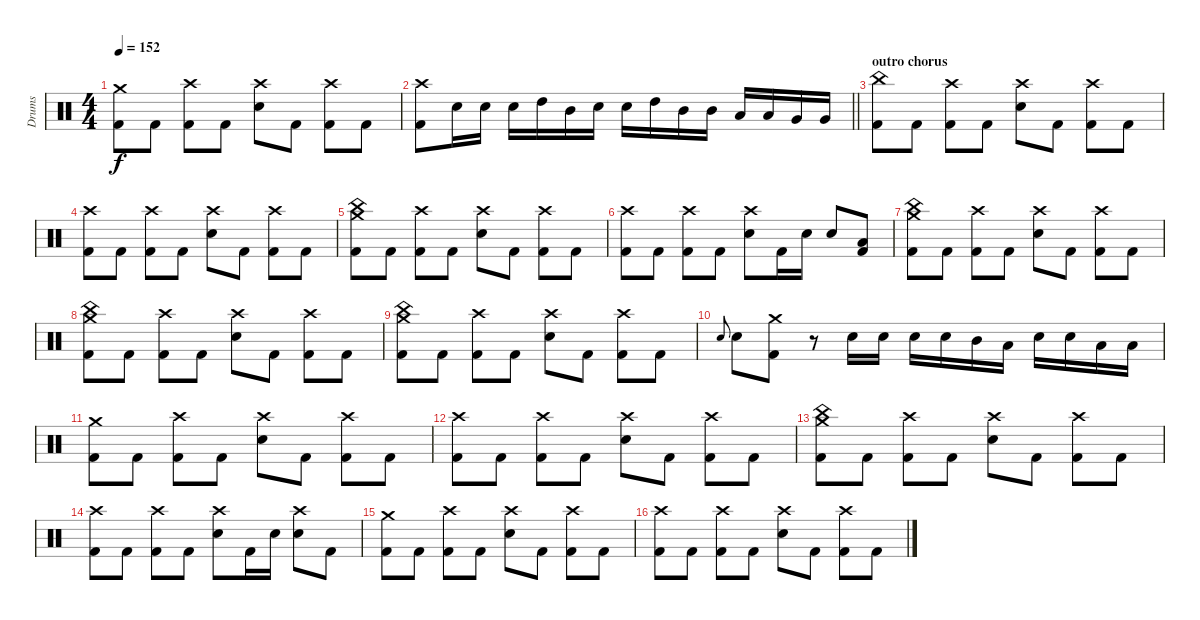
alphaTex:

\track ("Drums" "Drums") {instrument percussion}
\staff {score}
\articulation defaults
\ts (4 4)
\tempo 152
\clef neutral
\ks c
("Crash medium (hit)" "Kick (hit) 2").8{dy f} "Kick (hit) 2".8 ("Crash high (hit)" "Kick (hit) 2").8 "Kick (hit) 2".8 ("Crash high (hit)" "Electric Snare (hit)").8 "Kick (hit) 2".8 ("Crash high (hit)" "Kick (hit) 2").8 "Kick (hit) 2".8 |
\barLineRight lightlight
("Crash high (hit)" "Kick (hit) 2").8 "Electric Snare (hit)".16 "Electric Snare (hit)".16 "Electric Snare (hit)".16 "High Tom (hit)".16 "Mid Tom (hit)".16 "Electric Snare (hit)".16 "Electric Snare (hit)".16 "High Tom (hit)".16 "Mid Tom (hit)".16 "Mid Tom (hit)".16 "Low Tom (hit)".16 "Low Tom (hit)".16 "Very Low Tom (hit)".16 "Very Low Tom (hit)".16 |
\section ("" "outro chorus")
("China (hit)" "Kick (hit) 2").8 "Kick (hit) 2".8 ("Crash high (hit)" "Kick (hit) 2").8 "Kick (hit) 2".8 ("Crash high (hit)" "Electric Snare (hit)").8 "Kick (hit) 2".8 ("Crash high (hit)" "Kick (hit) 2").8 "Kick (hit) 2".8 |
("Crash high (hit)" "Kick (hit) 2").8 "Kick (hit) 2".8 ("Crash high (hit)" "Kick (hit) 2").8 "Kick (hit) 2".8 ("Crash high (hit)" "Electric Snare (hit)").8 "Kick (hit) 2".8 ("Crash high (hit)" "Kick (hit) 2").8 "Kick (hit) 2".8 |
("China (hit)" "Crash medium (hit)" "Kick (hit) 2").8 "Kick (hit) 2".8 ("Crash high (hit)" "Kick (hit) 2").8 "Kick (hit) 2".8 ("Crash high (hit)" "Electric Snare (hit)").8 "Kick (hit) 2".8 ("Crash high (hit)" "Kick (hit) 2").8 "Kick (hit) 2".8 |
("Crash high (hit)" "Kick (hit) 2").8 "Kick (hit) 2".8 ("Crash high (hit)" "Kick (hit) 2").8 "Kick (hit) 2".8 ("Crash high (hit)" "Electric Snare (hit)").8 "Kick (hit) 2".16 "Electric Snare (hit)".16 "Electric Snare (hit)".8 ("Low Tom (hit)" "Kick (hit) 2").8 |
("China (hit)" "Crash medium (hit)" "Kick (hit) 2").8 "Kick (hit) 2".8 ("Crash high (hit)" "Kick (hit) 2").8 "Kick (hit) 2".8 ("Crash high (hit)" "Electric Snare (hit)").8 "Kick (hit) 2".8 ("Crash high (hit)" "Kick (hit) 2").8 "Kick (hit) 2".8 |
("China (hit)" "Crash medium (hit)" "Kick (hit) 2").8 "Kick (hit) 2".8 ("Crash high (hit)" "Kick (hit) 2").8 "Kick (hit) 2".8 ("Crash high (hit)" "Electric Snare (hit)").8 "Kick (hit) 2".8 ("Crash high (hit)" "Kick (hit) 2").8 "Kick (hit) 2".8 |
("China (hit)" "Crash medium (hit)" "Kick (hit) 2").8 "Kick (hit) 2".8 ("Crash high (hit)" "Kick (hit) 2").8 "Kick (hit) 2".8 ("Crash high (hit)" "Electric Snare (hit)").8 "Kick (hit) 2".8 ("Crash high (hit)" "Kick (hit) 2").8 "Kick (hit) 2".8 |
"Electric Snare (hit)".8{gr onbeat} "Electric Snare (hit)".8 ("Crash medium (hit)" "Kick (hit) 2").8 r.8 "Electric Snare (hit)".16 "Electric Snare (hit)".16 "Electric Snare (hit)".16 "Electric Snare (hit)".16 "Mid Tom (hit)".16 "Low Tom (hit)".16 "Electric Snare (hit)".16 "Electric Snare (hit)".16 "Low Tom (hit)".16 "Low Tom (hit)".16 |
("Crash medium (hit)" "Kick (hit) 2").8 "Kick (hit) 2".8 ("Crash high (hit)" "Kick (hit) 2").8 "Kick (hit) 2".8 ("Crash high (hit)" "Electric Snare (hit)").8 "Kick (hit) 2".8 ("Crash high (hit)" "Kick (hit) 2").8 "Kick (hit) 2".8 |
("Crash high (hit)" "Kick (hit) 2").8 "Kick (hit) 2".8 ("Crash high (hit)" "Kick (hit) 2").8 "Kick (hit) 2".8 ("Crash high (hit)" "Electric Snare (hit)").8 "Kick (hit) 2".8 ("Crash high (hit)" "Kick (hit) 2").8 "Kick (hit) 2".8 |
("Crash medium (hit)" "China (hit)" "Kick (hit) 2").8 "Kick (hit) 2".8 ("Crash high (hit)" "Kick (hit) 2").8 "Kick (hit) 2".8 ("Crash high (hit)" "Electric Snare (hit)").8 "Kick (hit) 2".8 ("Crash high (hit)" "Kick (hit) 2").8 "Kick (hit) 2".8 |
("Crash high (hit)" "Kick (hit) 2").8 "Kick (hit) 2".8 ("Crash high (hit)" "Kick (hit) 2").8 "Kick (hit) 2".8 ("Crash high (hit)" "Electric Snare (hit)").8 "Kick (hit) 2".16 "Electric Snare (hit)".16 ("Crash high (hit)" "Electric Snare (hit)").8 "Kick (hit) 2".8 |
("Crash medium (hit)" "Kick (hit) 2").8 "Kick (hit) 2".8 ("Crash high (hit)" "Kick (hit) 2").8 "Kick (hit) 2".8 ("Crash high (hit)" "Electric Snare (hit)").8 "Kick (hit) 2".8 ("Crash high (hit)" "Kick (hit) 2").8 "Kick (hit) 2".8 |
("Crash high (hit)" "Kick (hit) 2").8 "Kick (hit) 2".8 ("Crash high (hit)" "Kick (hit) 2").8 "Kick (hit) 2".8 ("Crash high (hit)" "Electric Snare (hit)").8 "Kick (hit) 2".8 ("Crash high (hit)" "Kick (hit) 2").8 "Kick (hit) 2".8
